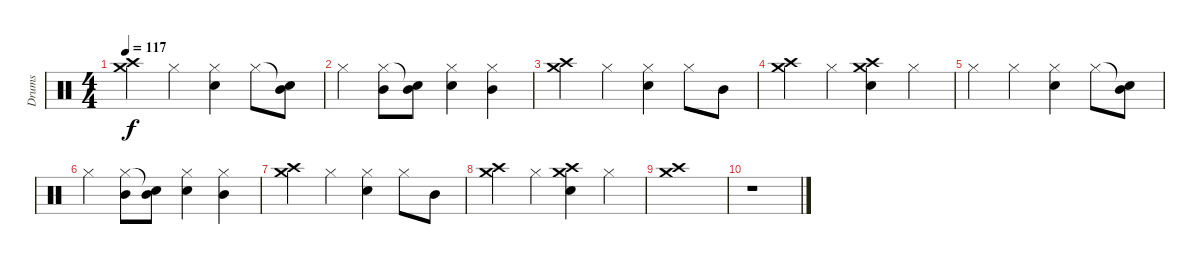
\track ("Drums" "Drums") {instrument percussion}
\staff {score}
\articulation defaults
\ts (4 4)
\tempo 117
\clef neutral
\ks c
("Crash high (hit)" "Crash medium (hit)").4{dy f} "Hi-Hat (closed)".4 ("Hi-Hat (closed)" "Electric Snare (hit)").4 "Hi-Hat (closed)".8 ("Snare (hit)"{t} "Mid Tom (hit)").8 |
"Hi-Hat (closed)".4 ("Hi-Hat (closed)" "Mid Tom (hit)").8 ("Snare (hit)"{t} "Mid Tom (hit)").8 ("Hi-Hat (closed)" "Electric Snare (hit)").4 ("Hi-Hat (closed)" "Mid Tom (hit)").4 |
("Crash high (hit)" "Crash medium (hit)").4 "Hi-Hat (closed)".4 ("Hi-Hat (closed)" "Electric Snare (hit)").4 "Hi-Hat (closed)".8 "Mid Tom (hit)".8 |
("Crash high (hit)" "Crash medium (hit)").4 "Hi-Hat (closed)".4 ("Crash high (hit)" "Crash medium (hit)" "Electric Snare (hit)").4 "Hi-Hat (closed)".4 |
"Hi-Hat (closed)".4 "Hi-Hat (closed)".4 ("Hi-Hat (closed)" "Electric Snare (hit)").4 "Hi-Hat (closed)".8 ("Snare (hit)"{t} "Mid Tom (hit)").8 |
"Hi-Hat (closed)".4 ("Hi-Hat (closed)" "Mid Tom (hit)").8 ("Snare (hit)"{t} "Mid Tom (hit)").8 ("Hi-Hat (closed)" "Electric Snare (hit)").4 ("Hi-Hat (closed)" "Mid Tom (hit)").4 |
("Crash high (hit)" "Crash medium (hit)").4 "Hi-Hat (closed)".4 ("Hi-Hat (closed)" "Electric Snare (hit)").4 "Hi-Hat (closed)".8 "Mid Tom (hit)".8 |
("Crash high (hit)" "Crash medium (hit)").4 "Hi-Hat (closed)".4 ("Crash high (hit)" "Crash medium (hit)" "Electric Snare (hit)").4 "Hi-Hat (closed)".4 |
("Crash high (hit)" "Crash medium (hit)").1 |
r.1
